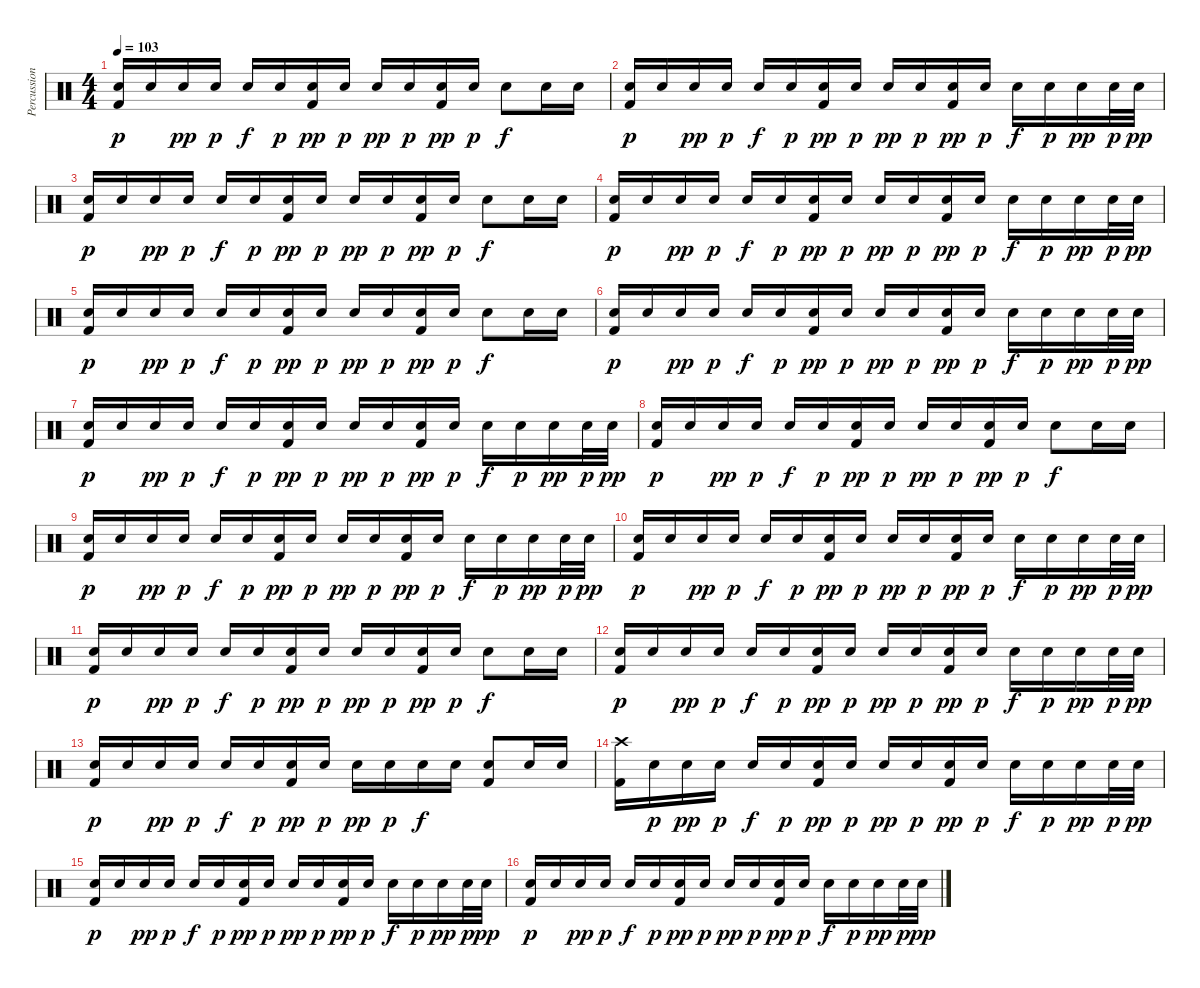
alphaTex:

\track ("Percussion" "Percussion") {instrument percussion}
\staff {score}
\articulation defaults
\ts (4 4)
\tempo 103
\clef neutral
\ks c
("Electric Snare (hit)" "Kick (hit) 2").16{dy p} "Electric Snare (hit)".16 "Electric Snare (hit)".16{dy pp} "Electric Snare (hit)".16{dy p} "Electric Snare (hit)".16{dy f} "Electric Snare (hit)".16{dy p} ("Electric Snare (hit)" "Kick (hit) 2").16{dy pp} "Electric Snare (hit)".16{dy p} "Electric Snare (hit)".16{dy pp} "Electric Snare (hit)".16{dy p} ("Electric Snare (hit)" "Kick (hit) 2").16{dy pp} "Electric Snare (hit)".16{dy p} "Electric Snare (hit)".8{dy f} "Electric Snare (hit)".16 "Electric Snare (hit)".16 |
("Electric Snare (hit)" "Kick (hit) 2").16{dy p} "Electric Snare (hit)".16 "Electric Snare (hit)".16{dy pp} "Electric Snare (hit)".16{dy p} "Electric Snare (hit)".16{dy f} "Electric Snare (hit)".16{dy p} ("Electric Snare (hit)" "Kick (hit) 2").16{dy pp} "Electric Snare (hit)".16{dy p} "Electric Snare (hit)".16{dy pp} "Electric Snare (hit)".16{dy p} ("Electric Snare (hit)" "Kick (hit) 2").16{dy pp} "Electric Snare (hit)".16{dy p} "Electric Snare (hit)".16{dy f} "Electric Snare (hit)".16{dy p} "Electric Snare (hit)".16{dy pp} "Electric Snare (hit)".32{dy p} "Electric Snare (hit)".32{dy pp} |
("Electric Snare (hit)" "Kick (hit) 2").16{dy p} "Electric Snare (hit)".16 "Electric Snare (hit)".16{dy pp} "Electric Snare (hit)".16{dy p} "Electric Snare (hit)".16{dy f} "Electric Snare (hit)".16{dy p} ("Electric Snare (hit)" "Kick (hit) 2").16{dy pp} "Electric Snare (hit)".16{dy p} "Electric Snare (hit)".16{dy pp} "Electric Snare (hit)".16{dy p} ("Electric Snare (hit)" "Kick (hit) 2").16{dy pp} "Electric Snare (hit)".16{dy p} "Electric Snare (hit)".8{dy f} "Electric Snare (hit)".16 "Electric Snare (hit)".16 |
("Electric Snare (hit)" "Kick (hit) 2").16{dy p} "Electric Snare (hit)".16 "Electric Snare (hit)".16{dy pp} "Electric Snare (hit)".16{dy p} "Electric Snare (hit)".16{dy f} "Electric Snare (hit)".16{dy p} ("Electric Snare (hit)" "Kick (hit) 2").16{dy pp} "Electric Snare (hit)".16{dy p} "Electric Snare (hit)".16{dy pp} "Electric Snare (hit)".16{dy p} ("Electric Snare (hit)" "Kick (hit) 2").16{dy pp} "Electric Snare (hit)".16{dy p} "Electric Snare (hit)".16{dy f} "Electric Snare (hit)".16{dy p} "Electric Snare (hit)".16{dy pp} "Electric Snare (hit)".32{dy p} "Electric Snare (hit)".32{dy pp} |
("Electric Snare (hit)" "Kick (hit) 2").16{dy p} "Electric Snare (hit)".16 "Electric Snare (hit)".16{dy pp} "Electric Snare (hit)".16{dy p} "Electric Snare (hit)".16{dy f} "Electric Snare (hit)".16{dy p} ("Electric Snare (hit)" "Kick (hit) 2").16{dy pp} "Electric Snare (hit)".16{dy p} "Electric Snare (hit)".16{dy pp} "Electric Snare (hit)".16{dy p} ("Electric Snare (hit)" "Kick (hit) 2").16{dy pp} "Electric Snare (hit)".16{dy p} "Electric Snare (hit)".8{dy f} "Electric Snare (hit)".16 "Electric Snare (hit)".16 |
("Electric Snare (hit)" "Kick (hit) 2").16{dy p} "Electric Snare (hit)".16 "Electric Snare (hit)".16{dy pp} "Electric Snare (hit)".16{dy p} "Electric Snare (hit)".16{dy f} "Electric Snare (hit)".16{dy p} ("Electric Snare (hit)" "Kick (hit) 2").16{dy pp} "Electric Snare (hit)".16{dy p} "Electric Snare (hit)".16{dy pp} "Electric Snare (hit)".16{dy p} ("Electric Snare (hit)" "Kick (hit) 2").16{dy pp} "Electric Snare (hit)".16{dy p} "Electric Snare (hit)".16{dy f} "Electric Snare (hit)".16{dy p} "Electric Snare (hit)".16{dy pp} "Electric Snare (hit)".32{dy p} "Electric Snare (hit)".32{dy pp} |
("Electric Snare (hit)" "Kick (hit) 2").16{dy p} "Electric Snare (hit)".16 "Electric Snare (hit)".16{dy pp} "Electric Snare (hit)".16{dy p} "Electric Snare (hit)".16{dy f} "Electric Snare (hit)".16{dy p} ("Electric Snare (hit)" "Kick (hit) 2").16{dy pp} "Electric Snare (hit)".16{dy p} "Electric Snare (hit)".16{dy pp} "Electric Snare (hit)".16{dy p} ("Electric Snare (hit)" "Kick (hit) 2").16{dy pp} "Electric Snare (hit)".16{dy p} "Electric Snare (hit)".16{dy f} "Electric Snare (hit)".16{dy p} "Electric Snare (hit)".16{dy pp} "Electric Snare (hit)".32{dy p} "Electric Snare (hit)".32{dy pp} |
("Electric Snare (hit)" "Kick (hit) 2").16{dy p} "Electric Snare (hit)".16 "Electric Snare (hit)".16{dy pp} "Electric Snare (hit)".16{dy p} "Electric Snare (hit)".16{dy f} "Electric Snare (hit)".16{dy p} ("Electric Snare (hit)" "Kick (hit) 2").16{dy pp} "Electric Snare (hit)".16{dy p} "Electric Snare (hit)".16{dy pp} "Electric Snare (hit)".16{dy p} ("Electric Snare (hit)" "Kick (hit) 2").16{dy pp} "Electric Snare (hit)".16{dy p} "Electric Snare (hit)".8{dy f} "Electric Snare (hit)".16 "Electric Snare (hit)".16 |
("Electric Snare (hit)" "Kick (hit) 2").16{dy p} "Electric Snare (hit)".16 "Electric Snare (hit)".16{dy pp} "Electric Snare (hit)".16{dy p} "Electric Snare (hit)".16{dy f} "Electric Snare (hit)".16{dy p} ("Electric Snare (hit)" "Kick (hit) 2").16{dy pp} "Electric Snare (hit)".16{dy p} "Electric Snare (hit)".16{dy pp} "Electric Snare (hit)".16{dy p} ("Electric Snare (hit)" "Kick (hit) 2").16{dy pp} "Electric Snare (hit)".16{dy p} "Electric Snare (hit)".16{dy f} "Electric Snare (hit)".16{dy p} "Electric Snare (hit)".16{dy pp} "Electric Snare (hit)".32{dy p} "Electric Snare (hit)".32{dy pp} |
("Electric Snare (hit)" "Kick (hit) 2").16{dy p} "Electric Snare (hit)".16 "Electric Snare (hit)".16{dy pp} "Electric Snare (hit)".16{dy p} "Electric Snare (hit)".16{dy f} "Electric Snare (hit)".16{dy p} ("Electric Snare (hit)" "Kick (hit) 2").16{dy pp} "Electric Snare (hit)".16{dy p} "Electric Snare (hit)".16{dy pp} "Electric Snare (hit)".16{dy p} ("Electric Snare (hit)" "Kick (hit) 2").16{dy pp} "Electric Snare (hit)".16{dy p} "Electric Snare (hit)".16{dy f} "Electric Snare (hit)".16{dy p} "Electric Snare (hit)".16{dy pp} "Electric Snare (hit)".32{dy p} "Electric Snare (hit)".32{dy pp} |
("Electric Snare (hit)" "Kick (hit) 2").16{dy p} "Electric Snare (hit)".16 "Electric Snare (hit)".16{dy pp} "Electric Snare (hit)".16{dy p} "Electric Snare (hit)".16{dy f} "Electric Snare (hit)".16{dy p} ("Electric Snare (hit)" "Kick (hit) 2").16{dy pp} "Electric Snare (hit)".16{dy p} "Electric Snare (hit)".16{dy pp} "Electric Snare (hit)".16{dy p} ("Electric Snare (hit)" "Kick (hit) 2").16{dy pp} "Electric Snare (hit)".16{dy p} "Electric Snare (hit)".8{dy f} "Electric Snare (hit)".16 "Electric Snare (hit)".16 |
("Electric Snare (hit)" "Kick (hit) 2").16{dy p} "Electric Snare (hit)".16 "Electric Snare (hit)".16{dy pp} "Electric Snare (hit)".16{dy p} "Electric Snare (hit)".16{dy f} "Electric Snare (hit)".16{dy p} ("Electric Snare (hit)" "Kick (hit) 2").16{dy pp} "Electric Snare (hit)".16{dy p} "Electric Snare (hit)".16{dy pp} "Electric Snare (hit)".16{dy p} ("Electric Snare (hit)" "Kick (hit) 2").16{dy pp} "Electric Snare (hit)".16{dy p} "Electric Snare (hit)".16{dy f} "Electric Snare (hit)".16{dy p} "Electric Snare (hit)".16{dy pp} "Electric Snare (hit)".32{dy p} "Electric Snare (hit)".32{dy pp} |
("Electric Snare (hit)" "Kick (hit) 2").16{dy p} "Electric Snare (hit)".16 "Electric Snare (hit)".16{dy pp} "Electric Snare (hit)".16{dy p} "Electric Snare (hit)".16{dy f} "Electric Snare (hit)".16{dy p} ("Electric Snare (hit)" "Kick (hit) 2").16{dy pp} "Electric Snare (hit)".16{dy p} "Electric Snare (hit)".16{dy pp} "Electric Snare (hit)".16{dy p} "Electric Snare (hit)".16{dy f} "Electric Snare (hit)".16 ("Electric Snare (hit)" "Kick (hit) 2").8 "Electric Snare (hit)".16 "Electric Snare (hit)".16 |
("Crash high (hit)" "Kick (hit) 2").16 "Electric Snare (hit)".16{dy p} "Electric Snare (hit)".16{dy pp} "Electric Snare (hit)".16{dy p} "Electric Snare (hit)".16{dy f} "Electric Snare (hit)".16{dy p} ("Electric Snare (hit)" "Kick (hit) 2").16{dy pp} "Electric Snare (hit)".16{dy p} "Electric Snare (hit)".16{dy pp} "Electric Snare (hit)".16{dy p} ("Electric Snare (hit)" "Kick (hit) 2").16{dy pp} "Electric Snare (hit)".16{dy p} "Electric Snare (hit)".16{dy f} "Electric Snare (hit)".16{dy p} "Electric Snare (hit)".16{dy pp} "Electric Snare (hit)".32{dy p} "Electric Snare (hit)".32{dy pp} |
("Electric Snare (hit)" "Kick (hit) 2").16{dy p} "Electric Snare (hit)".16 "Electric Snare (hit)".16{dy pp} "Electric Snare (hit)".16{dy p} "Electric Snare (hit)".16{dy f} "Electric Snare (hit)".16{dy p} ("Electric Snare (hit)" "Kick (hit) 2").16{dy pp} "Electric Snare (hit)".16{dy p} "Electric Snare (hit)".16{dy pp} "Electric Snare (hit)".16{dy p} ("Electric Snare (hit)" "Kick (hit) 2").16{dy pp} "Electric Snare (hit)".16{dy p} "Electric Snare (hit)".16{dy f} "Electric Snare (hit)".16{dy p} "Electric Snare (hit)".16{dy pp} "Electric Snare (hit)".32{dy p} "Electric Snare (hit)".32{dy pp} |
("Electric Snare (hit)" "Kick (hit) 2").16{dy p} "Electric Snare (hit)".16 "Electric Snare (hit)".16{dy pp} "Electric Snare (hit)".16{dy p} "Electric Snare (hit)".16{dy f} "Electric Snare (hit)".16{dy p} ("Electric Snare (hit)" "Kick (hit) 2").16{dy pp} "Electric Snare (hit)".16{dy p} "Electric Snare (hit)".16{dy pp} "Electric Snare (hit)".16{dy p} ("Electric Snare (hit)" "Kick (hit) 2").16{dy pp} "Electric Snare (hit)".16{dy p} "Electric Snare (hit)".16{dy f} "Electric Snare (hit)".16{dy p} "Electric Snare (hit)".16{dy pp} "Electric Snare (hit)".32{dy p} "Electric Snare (hit)".32{dy pp}
